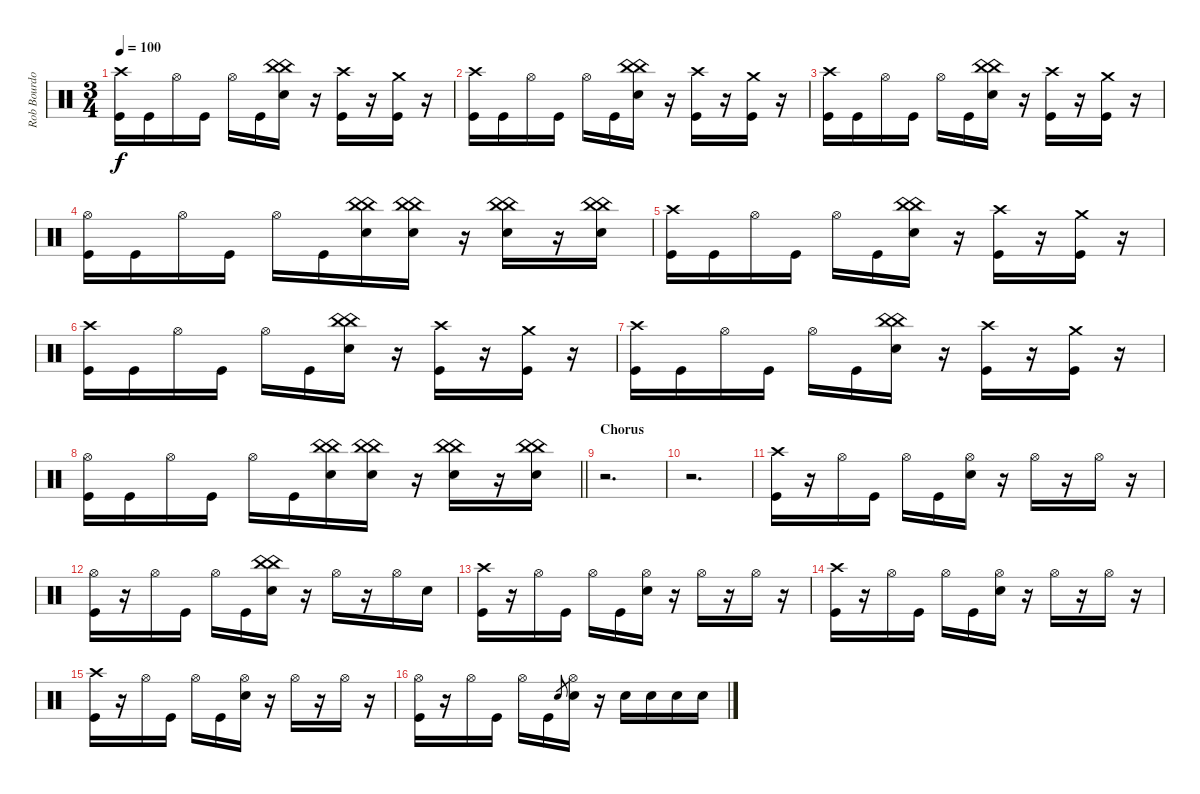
\track ("Rob Bourdon" "Rob Bourdo") {instrument percussion}
\staff {score}
\articulation defaults
\ts (3 4)
\tempo 100
\clef neutral
\ks c
("Crash high (hit)" "Kick (hit)").16{dy f} "Kick (hit)".16 "Hi-Hat (open)".16 "Kick (hit)".16 "Hi-Hat (open)".16 "Kick (hit)".16 ("China (hit)" "China (hit)" "Snare (hit) 2").16 r.16 ("Crash high (hit)" "Kick (hit)").16 r.16 ("Crash medium (hit)" "Kick (hit)").16 r.16 |
("Crash high (hit)" "Kick (hit)").16 "Kick (hit)".16 "Hi-Hat (open)".16 "Kick (hit)".16 "Hi-Hat (open)".16 "Kick (hit)".16 ("China (hit)" "China (hit)" "Snare (hit) 2").16 r.16 ("Crash high (hit)" "Kick (hit)").16 r.16 ("Crash medium (hit)" "Kick (hit)").16 r.16 |
("Crash high (hit)" "Kick (hit)").16 "Kick (hit)".16 "Hi-Hat (open)".16 "Kick (hit)".16 "Hi-Hat (open)".16 "Kick (hit)".16 ("China (hit)" "China (hit)" "Snare (hit) 2").16 r.16 ("Crash high (hit)" "Kick (hit)").16 r.16 ("Crash medium (hit)" "Kick (hit)").16 r.16 |
("Hi-Hat (open)" "Kick (hit)").16 "Kick (hit)".16 "Hi-Hat (open)".16 "Kick (hit)".16 "Hi-Hat (open)".16 "Kick (hit)".16 ("China (hit)" "China (hit)" "Snare (hit) 2").16 ("China (hit)" "China (hit)" "Snare (hit) 2").16 r.16 ("China (hit)" "China (hit)" "Snare (hit) 2").16 r.16 ("China (hit)" "China (hit)" "Snare (hit) 2").16 |
("Crash high (hit)" "Kick (hit)").16 "Kick (hit)".16 "Hi-Hat (open)".16 "Kick (hit)".16 "Hi-Hat (open)".16 "Kick (hit)".16 ("China (hit)" "China (hit)" "Snare (hit) 2").16 r.16 ("Crash high (hit)" "Kick (hit)").16 r.16 ("Crash medium (hit)" "Kick (hit)").16 r.16 |
("Crash high (hit)" "Kick (hit)").16 "Kick (hit)".16 "Hi-Hat (open)".16 "Kick (hit)".16 "Hi-Hat (open)".16 "Kick (hit)".16 ("China (hit)" "China (hit)" "Snare (hit) 2").16 r.16 ("Crash high (hit)" "Kick (hit)").16 r.16 ("Crash medium (hit)" "Kick (hit)").16 r.16 |
("Crash high (hit)" "Kick (hit)").16 "Kick (hit)".16 "Hi-Hat (open)".16 "Kick (hit)".16 "Hi-Hat (open)".16 "Kick (hit)".16 ("China (hit)" "China (hit)" "Snare (hit) 2").16 r.16 ("Crash high (hit)" "Kick (hit)").16 r.16 ("Crash medium (hit)" "Kick (hit)").16 r.16 |
\barLineRight lightlight
("Hi-Hat (open)" "Kick (hit)").16 "Kick (hit)".16 "Hi-Hat (open)".16 "Kick (hit)".16 "Hi-Hat (open)".16 "Kick (hit)".16 ("China (hit)" "China (hit)" "Snare (hit) 2").16 ("China (hit)" "China (hit)" "Snare (hit) 2").16 r.16 ("China (hit)" "China (hit)" "Snare (hit) 2").16 r.16 ("China (hit)" "China (hit)" "Snare (hit) 2").16 |
\section ("" "Chorus")
r.2{d} |
r.2{d} |
("Crash high (hit)" "Kick (hit)").16 r.16 "Hi-Hat (open)".16 "Kick (hit)".16 "Hi-Hat (open)".16 "Kick (hit)".16 ("Hi-Hat (open)" "Snare (hit) 2").16 r.16 "Hi-Hat (open)".16 r.16 "Hi-Hat (open)".16 r.16 |
("Hi-Hat (open)" "Kick (hit)").16 r.16 "Hi-Hat (open)".16 "Kick (hit)".16 "Hi-Hat (open)".16 "Kick (hit)".16 ("China (hit)" "China (hit)" "Snare (hit) 2").16 r.16 "Hi-Hat (open)".16 r.16 "Hi-Hat (open)".16 "Snare (hit) 2".16 |
("Crash high (hit)" "Kick (hit)").16 r.16 "Hi-Hat (open)".16 "Kick (hit)".16 "Hi-Hat (open)".16 "Kick (hit)".16 ("Hi-Hat (open)" "Snare (hit) 2").16 r.16 "Hi-Hat (open)".16 r.16 "Hi-Hat (open)".16 r.16 |
("Crash high (hit)" "Kick (hit)").16 r.16 "Hi-Hat (open)".16 "Kick (hit)".16 "Hi-Hat (open)".16 "Kick (hit)".16 ("Hi-Hat (open)" "Snare (hit) 2").16 r.16 "Hi-Hat (open)".16 r.16 "Hi-Hat (open)".16 r.16 |
("Crash high (hit)" "Kick (hit)").16 r.16 "Hi-Hat (open)".16 "Kick (hit)".16 "Hi-Hat (open)".16 "Kick (hit)".16 ("Hi-Hat (open)" "Snare (hit) 2").16 r.16 "Hi-Hat (open)".16 r.16 "Hi-Hat (open)".16 r.16 |
("Hi-Hat (open)" "Kick (hit)").16 r.16 "Hi-Hat (open)".16 "Kick (hit)".16 "Hi-Hat (open)".16 "Kick (hit)".16 "Snare (hit) 2".8{gr} ("Hi-Hat (open)" "Snare (hit) 2").16 r.16 "Snare (hit) 2".16 "Snare (hit) 2".16 "Snare (hit) 2".16 "Snare (hit) 2".16
